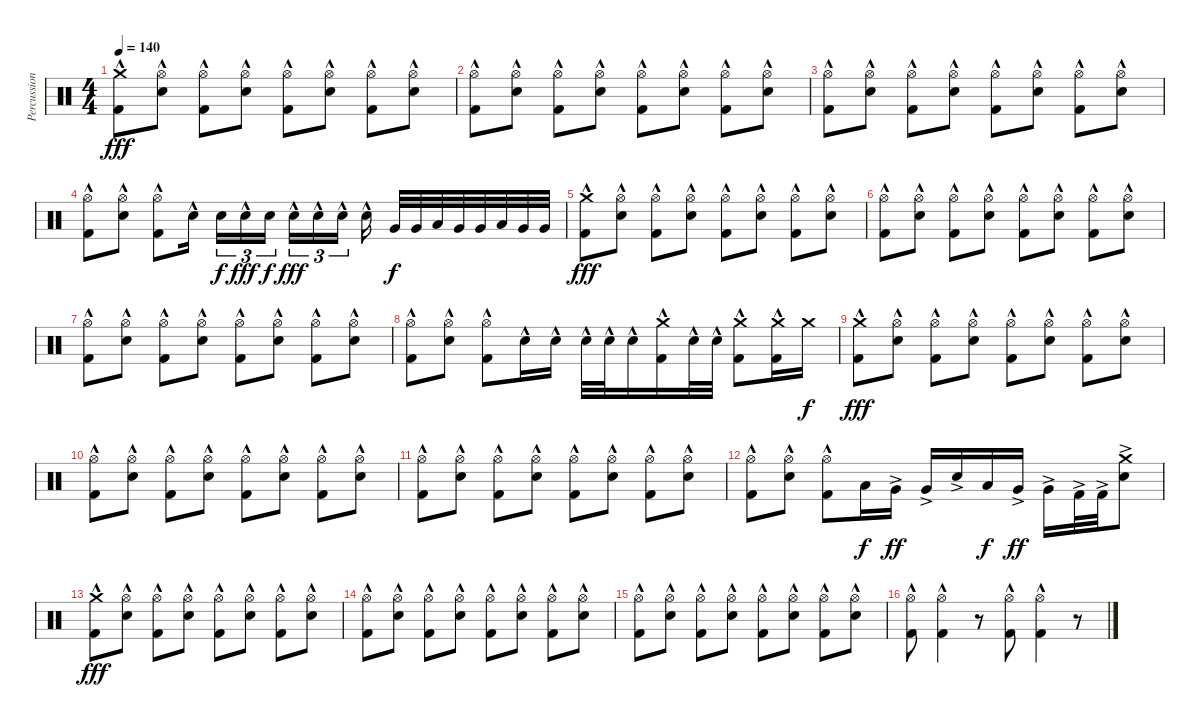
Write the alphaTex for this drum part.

\track ("Percussion" "Percussion") {instrument percussion}
\staff {score}
\articulation defaults
\ts (4 4)
\tempo 140
\clef neutral
\ks c
("Crash medium (hit)" "Kick (hit) 2"{hac}).8{dy fff} ("Hi-Hat (open)" "Electric Snare (hit)"{hac}).8 ("Hi-Hat (open)" "Kick (hit) 2"{hac}).8 ("Hi-Hat (open)" "Electric Snare (hit)"{hac}).8 ("Hi-Hat (open)" "Kick (hit) 2"{hac}).8 ("Hi-Hat (open)" "Electric Snare (hit)"{hac}).8 ("Hi-Hat (open)" "Kick (hit) 2"{hac}).8 ("Hi-Hat (open)" "Electric Snare (hit)"{hac}).8 |
("Hi-Hat (open)" "Kick (hit) 2"{hac}).8 ("Hi-Hat (open)" "Electric Snare (hit)"{hac}).8 ("Hi-Hat (open)" "Kick (hit) 2"{hac}).8 ("Hi-Hat (open)" "Electric Snare (hit)"{hac}).8 ("Hi-Hat (open)" "Kick (hit) 2"{hac}).8 ("Hi-Hat (open)" "Electric Snare (hit)"{hac}).8 ("Hi-Hat (open)" "Kick (hit) 2"{hac}).8 ("Hi-Hat (open)" "Electric Snare (hit)"{hac}).8 |
("Hi-Hat (open)" "Kick (hit) 2"{hac}).8 ("Hi-Hat (open)" "Electric Snare (hit)"{hac}).8 ("Hi-Hat (open)" "Kick (hit) 2"{hac}).8 ("Hi-Hat (open)" "Electric Snare (hit)"{hac}).8 ("Hi-Hat (open)" "Kick (hit) 2"{hac}).8 ("Hi-Hat (open)" "Electric Snare (hit)"{hac}).8 ("Hi-Hat (open)" "Kick (hit) 2"{hac}).8 ("Hi-Hat (open)" "Electric Snare (hit)"{hac}).8 |
("Hi-Hat (open)" "Kick (hit) 2"{hac}).8 ("Hi-Hat (open)" "Electric Snare (hit)"{hac}).8 ("Hi-Hat (open)" "Kick (hit) 2"{hac}).8 "Electric Snare (hit)"{hac}.16{beam splitsecondary} "Electric Snare (hit)".16{tu (3 2) dy f} "Electric Snare (hit)"{hac}.16{tu (3 2) dy fff} "Electric Snare (hit)".16{tu (3 2) dy f beam splitsecondary} "Electric Snare (hit)"{hac}.16{tu (3 2) dy fff} "Electric Snare (hit)"{hac}.16{tu (3 2)} "Electric Snare (hit)"{hac}.16{tu (3 2) beam splitsecondary} "Electric Snare (hit)"{hac}.16 "Very Low Tom (hit)".32{dy f} "Very Low Tom (hit)".32 "Low Floor Tom (hit)".32 "Very Low Tom (hit)".32 "Very Low Tom (hit)".32 "Low Floor Tom (hit)".32 "Very Low Tom (hit)".32 "Very Low Tom (hit)".32 |
("Crash medium (hit)" "Kick (hit) 2"{hac}).8{dy fff} ("Hi-Hat (open)" "Electric Snare (hit)"{hac}).8 ("Hi-Hat (open)" "Kick (hit) 2"{hac}).8 ("Hi-Hat (open)" "Electric Snare (hit)"{hac}).8 ("Hi-Hat (open)" "Kick (hit) 2"{hac}).8 ("Hi-Hat (open)" "Electric Snare (hit)"{hac}).8 ("Hi-Hat (open)" "Kick (hit) 2"{hac}).8 ("Hi-Hat (open)" "Electric Snare (hit)"{hac}).8 |
("Hi-Hat (open)" "Kick (hit) 2"{hac}).8 ("Hi-Hat (open)" "Electric Snare (hit)"{hac}).8 ("Hi-Hat (open)" "Kick (hit) 2"{hac}).8 ("Hi-Hat (open)" "Electric Snare (hit)"{hac}).8 ("Hi-Hat (open)" "Kick (hit) 2"{hac}).8 ("Hi-Hat (open)" "Electric Snare (hit)"{hac}).8 ("Hi-Hat (open)" "Kick (hit) 2"{hac}).8 ("Hi-Hat (open)" "Electric Snare (hit)"{hac}).8 |
("Hi-Hat (open)" "Kick (hit) 2"{hac}).8 ("Hi-Hat (open)" "Electric Snare (hit)"{hac}).8 ("Hi-Hat (open)" "Kick (hit) 2"{hac}).8 ("Hi-Hat (open)" "Electric Snare (hit)"{hac}).8 ("Hi-Hat (open)" "Kick (hit) 2"{hac}).8 ("Hi-Hat (open)" "Electric Snare (hit)"{hac}).8 ("Hi-Hat (open)" "Kick (hit) 2"{hac}).8 ("Hi-Hat (open)" "Electric Snare (hit)"{hac}).8 |
("Hi-Hat (open)" "Kick (hit) 2"{hac}).8 ("Hi-Hat (open)" "Electric Snare (hit)"{hac}).8 ("Hi-Hat (open)" "Kick (hit) 2"{hac}).8 "Electric Snare (hit)"{hac}.16 "Electric Snare (hit)"{hac}.16 "Electric Snare (hit)"{hac}.32 "Electric Snare (hit)"{hac}.32 "Electric Snare (hit)"{hac}.16 ("Crash medium (hit)" "Kick (hit) 2"{hac}).16 "Electric Snare (hit)"{hac}.32 "Electric Snare (hit)"{hac}.32 ("Crash medium (hit)" "Kick (hit) 2"{hac}).8 ("Crash medium (hit)" "Kick (hit) 2"{hac}).16 "Crash medium (hit)".16{dy f} |
("Crash medium (hit)" "Kick (hit) 2"{hac}).8{dy fff} ("Hi-Hat (open)" "Electric Snare (hit)"{hac}).8 ("Hi-Hat (open)" "Kick (hit) 2"{hac}).8 ("Hi-Hat (open)" "Electric Snare (hit)"{hac}).8 ("Hi-Hat (open)" "Kick (hit) 2"{hac}).8 ("Hi-Hat (open)" "Electric Snare (hit)"{hac}).8 ("Hi-Hat (open)" "Kick (hit) 2"{hac}).8 ("Hi-Hat (open)" "Electric Snare (hit)"{hac}).8 |
("Hi-Hat (open)" "Kick (hit) 2"{hac}).8 ("Hi-Hat (open)" "Electric Snare (hit)"{hac}).8 ("Hi-Hat (open)" "Kick (hit) 2"{hac}).8 ("Hi-Hat (open)" "Electric Snare (hit)"{hac}).8 ("Hi-Hat (open)" "Kick (hit) 2"{hac}).8 ("Hi-Hat (open)" "Electric Snare (hit)"{hac}).8 ("Hi-Hat (open)" "Kick (hit) 2"{hac}).8 ("Hi-Hat (open)" "Electric Snare (hit)"{hac}).8 |
("Hi-Hat (open)" "Kick (hit) 2"{hac}).8 ("Hi-Hat (open)" "Electric Snare (hit)"{hac}).8 ("Hi-Hat (open)" "Kick (hit) 2"{hac}).8 ("Hi-Hat (open)" "Electric Snare (hit)"{hac}).8 ("Hi-Hat (open)" "Kick (hit) 2"{hac}).8 ("Hi-Hat (open)" "Electric Snare (hit)"{hac}).8 ("Hi-Hat (open)" "Kick (hit) 2"{hac}).8 ("Hi-Hat (open)" "Electric Snare (hit)"{hac}).8 |
("Hi-Hat (open)" "Kick (hit) 2"{hac}).8 ("Hi-Hat (open)" "Electric Snare (hit)"{hac}).8 ("Hi-Hat (open)" "Kick (hit) 2"{hac}).8 "Low Tom (hit)".16{dy f} "Very Low Tom (hit)"{ac}.16{dy ff} "Very Low Tom (hit)"{ac}.16 "Electric Snare (hit)"{ac}.16 "Low Tom (hit)".16{dy f} "Very Low Tom (hit)"{ac}.16{dy ff} "Very Low Tom (hit)"{ac}.16 "Kick (hit) 2"{ac}.32 "Kick (hit) 2"{ac}.32 ("Crash medium (hit)" "Electric Snare (hit)"{ac}).8 |
("Crash medium (hit)" "Kick (hit) 2"{hac}).8{dy fff} ("Hi-Hat (open)" "Electric Snare (hit)"{hac}).8 ("Hi-Hat (open)" "Kick (hit) 2"{hac}).8 ("Hi-Hat (open)" "Electric Snare (hit)"{hac}).8 ("Hi-Hat (open)" "Kick (hit) 2"{hac}).8 ("Hi-Hat (open)" "Electric Snare (hit)"{hac}).8 ("Hi-Hat (open)" "Kick (hit) 2"{hac}).8 ("Hi-Hat (open)" "Electric Snare (hit)"{hac}).8 |
("Hi-Hat (open)" "Kick (hit) 2"{hac}).8 ("Hi-Hat (open)" "Electric Snare (hit)"{hac}).8 ("Hi-Hat (open)" "Kick (hit) 2"{hac}).8 ("Hi-Hat (open)" "Electric Snare (hit)"{hac}).8 ("Hi-Hat (open)" "Kick (hit) 2"{hac}).8 ("Hi-Hat (open)" "Electric Snare (hit)"{hac}).8 ("Hi-Hat (open)" "Kick (hit) 2"{hac}).8 ("Hi-Hat (open)" "Electric Snare (hit)"{hac}).8 |
("Hi-Hat (open)" "Kick (hit) 2"{hac}).8 ("Hi-Hat (open)" "Electric Snare (hit)"{hac}).8 ("Hi-Hat (open)" "Kick (hit) 2"{hac}).8 ("Hi-Hat (open)" "Electric Snare (hit)"{hac}).8 ("Hi-Hat (open)" "Kick (hit) 2"{hac}).8 ("Hi-Hat (open)" "Electric Snare (hit)"{hac}).8 ("Hi-Hat (open)" "Kick (hit) 2"{hac}).8 ("Hi-Hat (open)" "Electric Snare (hit)"{hac}).8 |
("Hi-Hat (open)" "Kick (hit) 2"{hac}).8 ("Hi-Hat (open)" "Kick (hit) 2"{hac}).4 r.8 ("Hi-Hat (open)" "Kick (hit) 2"{hac}).8 ("Hi-Hat (open)" "Kick (hit) 2"{hac}).4 r.8
